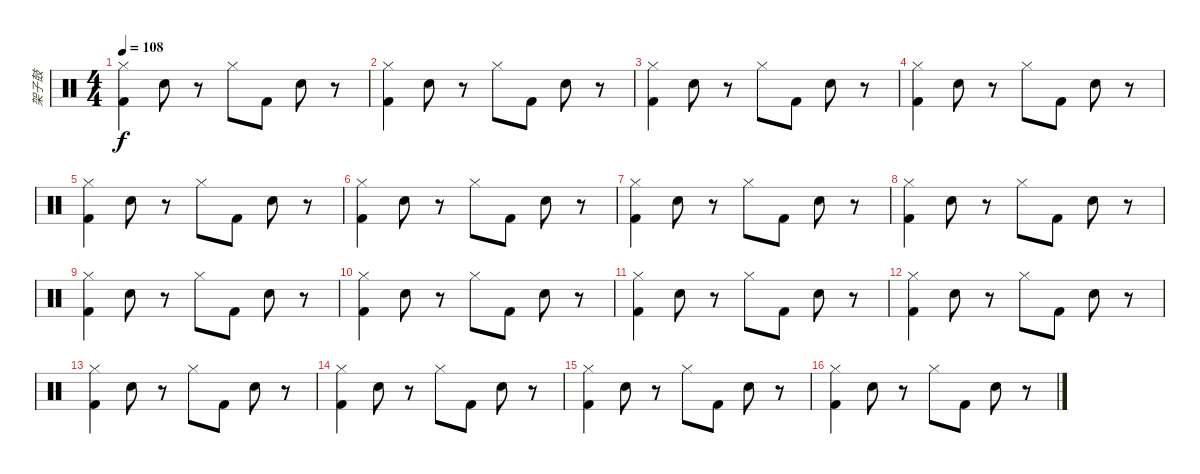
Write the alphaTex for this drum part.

\track ("架子鼓" "架子鼓") {instrument percussion}
\staff {score}
\articulation defaults
\ts (4 4)
\tempo 108
\clef neutral
\ks c
("Hi-Hat (closed)" "Kick (hit) 2").4{dy f} "Snare (hit) 2".8 r.8 "Hi-Hat (closed)".8 "Kick (hit) 2".8 "Snare (hit) 2".8 r.8 |
("Hi-Hat (closed)" "Kick (hit) 2").4 "Snare (hit) 2".8 r.8 "Hi-Hat (closed)".8 "Kick (hit) 2".8 "Snare (hit) 2".8 r.8 |
("Hi-Hat (closed)" "Kick (hit) 2").4 "Snare (hit) 2".8 r.8 "Hi-Hat (closed)".8 "Kick (hit) 2".8 "Snare (hit) 2".8 r.8 |
("Hi-Hat (closed)" "Kick (hit) 2").4 "Snare (hit) 2".8 r.8 "Hi-Hat (closed)".8 "Kick (hit) 2".8 "Snare (hit) 2".8 r.8 |
("Hi-Hat (closed)" "Kick (hit) 2").4 "Snare (hit) 2".8 r.8 "Hi-Hat (closed)".8 "Kick (hit) 2".8 "Snare (hit) 2".8 r.8 |
("Hi-Hat (closed)" "Kick (hit) 2").4 "Snare (hit) 2".8 r.8 "Hi-Hat (closed)".8 "Kick (hit) 2".8 "Snare (hit) 2".8 r.8 |
("Hi-Hat (closed)" "Kick (hit) 2").4 "Snare (hit) 2".8 r.8 "Hi-Hat (closed)".8 "Kick (hit) 2".8 "Snare (hit) 2".8 r.8 |
("Hi-Hat (closed)" "Kick (hit) 2").4 "Snare (hit) 2".8 r.8 "Hi-Hat (closed)".8 "Kick (hit) 2".8 "Snare (hit) 2".8 r.8 |
("Hi-Hat (closed)" "Kick (hit) 2").4 "Snare (hit) 2".8 r.8 "Hi-Hat (closed)".8 "Kick (hit) 2".8 "Snare (hit) 2".8 r.8 |
("Hi-Hat (closed)" "Kick (hit) 2").4 "Snare (hit) 2".8 r.8 "Hi-Hat (closed)".8 "Kick (hit) 2".8 "Snare (hit) 2".8 r.8 |
("Hi-Hat (closed)" "Kick (hit) 2").4 "Snare (hit) 2".8 r.8 "Hi-Hat (closed)".8 "Kick (hit) 2".8 "Snare (hit) 2".8 r.8 |
("Hi-Hat (closed)" "Kick (hit) 2").4 "Snare (hit) 2".8 r.8 "Hi-Hat (closed)".8 "Kick (hit) 2".8 "Snare (hit) 2".8 r.8 |
("Hi-Hat (closed)" "Kick (hit) 2").4 "Snare (hit) 2".8 r.8 "Hi-Hat (closed)".8 "Kick (hit) 2".8 "Snare (hit) 2".8 r.8 |
("Hi-Hat (closed)" "Kick (hit) 2").4 "Snare (hit) 2".8 r.8 "Hi-Hat (closed)".8 "Kick (hit) 2".8 "Snare (hit) 2".8 r.8 |
("Hi-Hat (closed)" "Kick (hit) 2").4 "Snare (hit) 2".8 r.8 "Hi-Hat (closed)".8 "Kick (hit) 2".8 "Snare (hit) 2".8 r.8 |
("Hi-Hat (closed)" "Kick (hit) 2").4 "Snare (hit) 2".8 r.8 "Hi-Hat (closed)".8 "Kick (hit) 2".8 "Snare (hit) 2".8 r.8
